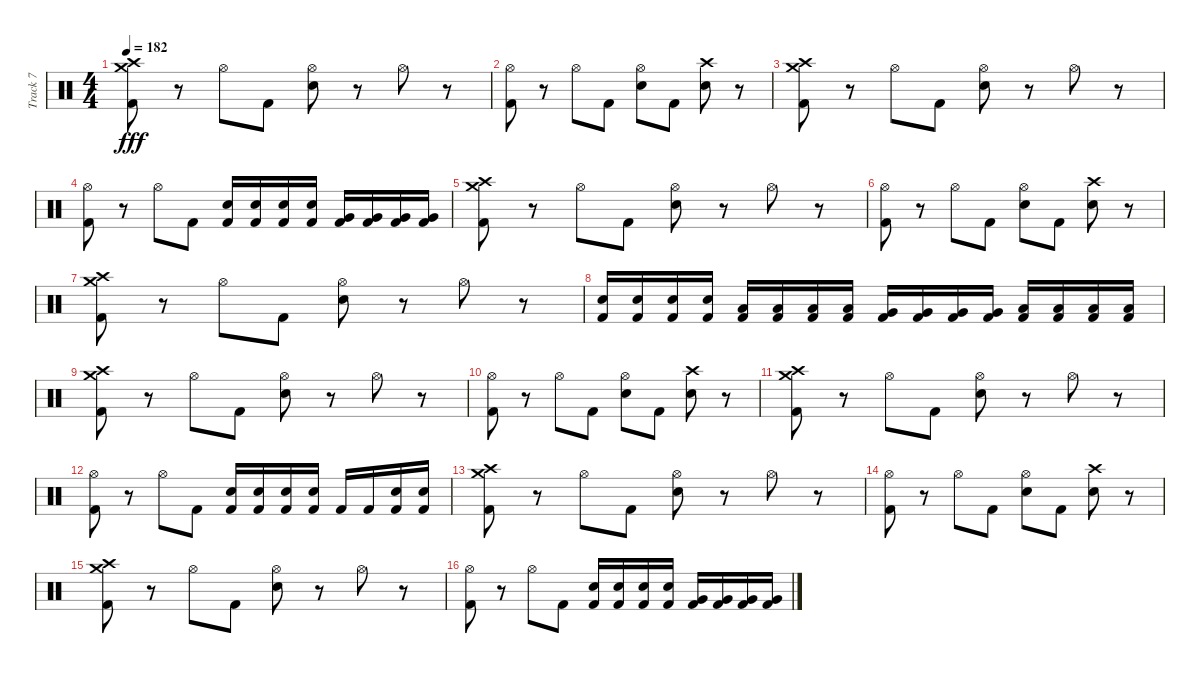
\track ("Track 7" "Track 7") {instrument percussion}
\staff {score}
\articulation defaults
\ts (4 4)
\tempo 182
\clef neutral
\ks c
("Kick (hit) 2" "Crash medium (hit)" "Crash high (hit)").8{dy fff} r.8 "Hi-Hat (open)".8 "Kick (hit) 2".8 ("Electric Snare (hit)" "Hi-Hat (open)").8 r.8 "Hi-Hat (open)".8 r.8 |
("Kick (hit) 2" "Hi-Hat (open)").8 r.8 "Hi-Hat (open)".8 "Kick (hit) 2".8 ("Electric Snare (hit)" "Hi-Hat (open)").8 "Kick (hit) 2".8 ("Electric Snare (hit)" "Crash high (hit)").8 r.8 |
("Kick (hit) 2" "Crash medium (hit)" "Crash high (hit)").8 r.8 "Hi-Hat (open)".8 "Kick (hit) 2".8 ("Electric Snare (hit)" "Hi-Hat (open)").8 r.8 "Hi-Hat (open)".8 r.8 |
("Kick (hit) 2" "Hi-Hat (open)").8 r.8 "Hi-Hat (open)".8 "Kick (hit) 2".8 ("Kick (hit) 2" "Electric Snare (hit)").16 ("Kick (hit) 2" "Electric Snare (hit)").16 ("Kick (hit) 2" "Electric Snare (hit)").16 ("Kick (hit) 2" "Electric Snare (hit)").16 ("Kick (hit) 2" "Very Low Tom (hit)").16 ("Kick (hit) 2" "Very Low Tom (hit)").16 ("Kick (hit) 2" "Very Low Tom (hit)").16 ("Kick (hit) 2" "Very Low Tom (hit)").16 |
("Kick (hit) 2" "Crash medium (hit)" "Crash high (hit)").8 r.8 "Hi-Hat (open)".8 "Kick (hit) 2".8 ("Electric Snare (hit)" "Hi-Hat (open)").8 r.8 "Hi-Hat (open)".8 r.8 |
("Kick (hit) 2" "Hi-Hat (open)").8 r.8 "Hi-Hat (open)".8 "Kick (hit) 2".8 ("Electric Snare (hit)" "Hi-Hat (open)").8 "Kick (hit) 2".8 ("Electric Snare (hit)" "Crash high (hit)").8 r.8 |
("Kick (hit) 2" "Crash medium (hit)" "Crash high (hit)").8 r.8 "Hi-Hat (open)".8 "Kick (hit) 2".8 ("Electric Snare (hit)" "Hi-Hat (open)").8 r.8 "Hi-Hat (open)".8 r.8 |
("Kick (hit) 2" "Electric Snare (hit)").16 ("Kick (hit) 2" "Electric Snare (hit)").16 ("Kick (hit) 2" "Electric Snare (hit)").16 ("Kick (hit) 2" "Electric Snare (hit)").16 ("Kick (hit) 2" "Low Tom (hit)").16 ("Kick (hit) 2" "Low Tom (hit)").16 ("Kick (hit) 2" "Low Tom (hit)").16 ("Kick (hit) 2" "Low Tom (hit)").16 ("Kick (hit) 2" "Very Low Tom (hit)").16 ("Kick (hit) 2" "Very Low Tom (hit)").16 ("Kick (hit) 2" "Very Low Tom (hit)").16 ("Kick (hit) 2" "Very Low Tom (hit)").16 ("Kick (hit) 2" "Low Floor Tom (hit)").16 ("Kick (hit) 2" "Low Floor Tom (hit)").16 ("Kick (hit) 2" "Low Floor Tom (hit)").16 ("Kick (hit) 2" "Low Floor Tom (hit)").16 |
("Kick (hit) 2" "Crash medium (hit)" "Crash high (hit)").8 r.8 "Hi-Hat (open)".8 "Kick (hit) 2".8 ("Electric Snare (hit)" "Hi-Hat (open)").8 r.8 "Hi-Hat (open)".8 r.8 |
("Kick (hit) 2" "Hi-Hat (open)").8 r.8 "Hi-Hat (open)".8 "Kick (hit) 2".8 ("Electric Snare (hit)" "Hi-Hat (open)").8 "Kick (hit) 2".8 ("Electric Snare (hit)" "Crash high (hit)").8 r.8 |
("Kick (hit) 2" "Crash medium (hit)" "Crash high (hit)").8 r.8 "Hi-Hat (open)".8 "Kick (hit) 2".8 ("Electric Snare (hit)" "Hi-Hat (open)").8 r.8 "Hi-Hat (open)".8 r.8 |
("Kick (hit) 2" "Hi-Hat (open)").8 r.8 "Hi-Hat (open)".8 "Kick (hit) 2".8 ("Kick (hit) 2" "Electric Snare (hit)").16 ("Kick (hit) 2" "Electric Snare (hit)").16 ("Kick (hit) 2" "Electric Snare (hit)").16 ("Kick (hit) 2" "Electric Snare (hit)").16 "Kick (hit) 2".16 "Kick (hit) 2".16 ("Kick (hit) 2" "Electric Snare (hit)").16 ("Kick (hit) 2" "Electric Snare (hit)").16 |
("Kick (hit) 2" "Crash medium (hit)" "Crash high (hit)").8 r.8 "Hi-Hat (open)".8 "Kick (hit) 2".8 ("Electric Snare (hit)" "Hi-Hat (open)").8 r.8 "Hi-Hat (open)".8 r.8 |
("Kick (hit) 2" "Hi-Hat (open)").8 r.8 "Hi-Hat (open)".8 "Kick (hit) 2".8 ("Electric Snare (hit)" "Hi-Hat (open)").8 "Kick (hit) 2".8 ("Electric Snare (hit)" "Crash high (hit)").8 r.8 |
("Kick (hit) 2" "Crash medium (hit)" "Crash high (hit)").8 r.8 "Hi-Hat (open)".8 "Kick (hit) 2".8 ("Electric Snare (hit)" "Hi-Hat (open)").8 r.8 "Hi-Hat (open)".8 r.8 |
("Kick (hit) 2" "Hi-Hat (open)").8 r.8 "Hi-Hat (open)".8 "Kick (hit) 2".8 ("Kick (hit) 2" "Electric Snare (hit)").16 ("Kick (hit) 2" "Electric Snare (hit)").16 ("Kick (hit) 2" "Electric Snare (hit)").16 ("Kick (hit) 2" "Electric Snare (hit)").16 ("Kick (hit) 2" "Very Low Tom (hit)").16 ("Kick (hit) 2" "Very Low Tom (hit)").16 ("Kick (hit) 2" "Very Low Tom (hit)").16 ("Kick (hit) 2" "Very Low Tom (hit)").16
